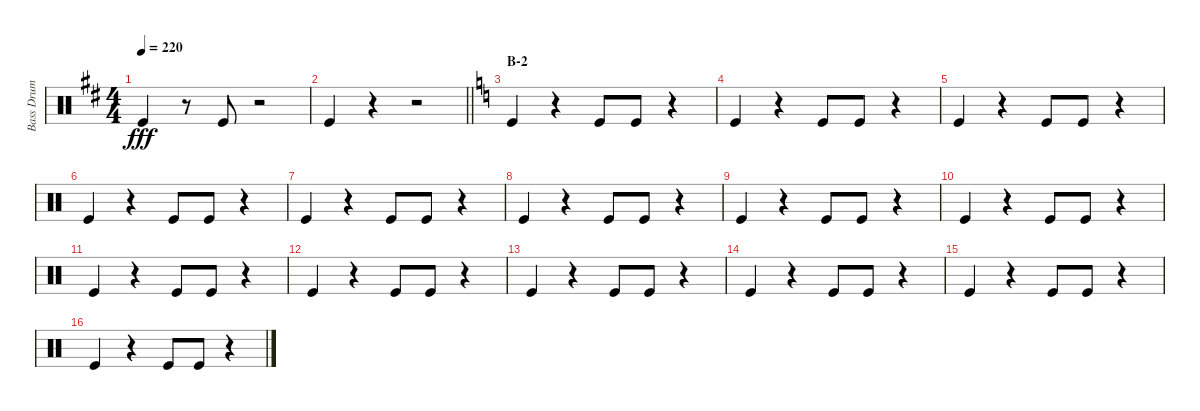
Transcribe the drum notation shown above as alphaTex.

\track ("Bass Drum" "Bass Drum") {instrument percussion}
\staff {score}
\articulation defaults
\ts (4 4)
\tempo 220
\clef neutral
\ks d "Kick (hit)".4{dy fff}
r.8 "Kick (hit)".8 r.2 |
\barLineRight lightlight "Kick (hit)".4
r.4 r.2 |
\section ("" "B-2")
\ks c "Kick (hit)".4
r.4 "Kick (hit)".8 "Kick (hit)".8 r.4 |
"Kick (hit)".4 r.4 "Kick (hit)".8 "Kick (hit)".8 r.4 |
"Kick (hit)".4 r.4 "Kick (hit)".8 "Kick (hit)".8 r.4 |
"Kick (hit)".4 r.4 "Kick (hit)".8 "Kick (hit)".8 r.4 |
"Kick (hit)".4 r.4 "Kick (hit)".8 "Kick (hit)".8 r.4 |
"Kick (hit)".4 r.4 "Kick (hit)".8 "Kick (hit)".8 r.4 |
"Kick (hit)".4 r.4 "Kick (hit)".8 "Kick (hit)".8 r.4 |
"Kick (hit)".4 r.4 "Kick (hit)".8 "Kick (hit)".8 r.4 |
"Kick (hit)".4 r.4 "Kick (hit)".8 "Kick (hit)".8 r.4 |
"Kick (hit)".4 r.4 "Kick (hit)".8 "Kick (hit)".8 r.4 |
"Kick (hit)".4 r.4 "Kick (hit)".8 "Kick (hit)".8 r.4 |
"Kick (hit)".4 r.4 "Kick (hit)".8 "Kick (hit)".8 r.4 |
"Kick (hit)".4 r.4 "Kick (hit)".8 "Kick (hit)".8 r.4 |
"Kick (hit)".4 r.4 "Kick (hit)".8 "Kick (hit)".8 r.4
